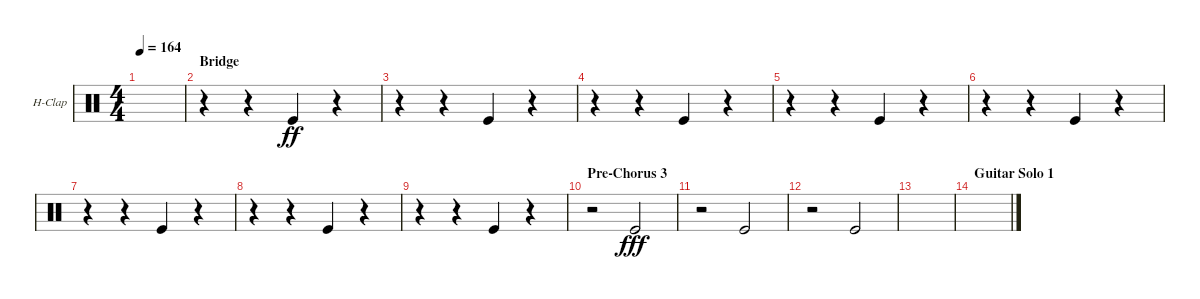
\defaultSystemsLayout 4
\bracketExtendMode groupsimilarinstruments
\firstSystemTrackNameOrientation horizontal
\otherSystemsTrackNameOrientation horizontal
\track ("Hand Clap" "H-Clap") {instrument percussion}
\staff {score}
\articulation defaults
\ts (4 4)
\tempo 164
\clef neutral
\ks c
|
\section ("" "Bridge")
r.4 r.4 "Kick (hit)".4{dy ff} r.4 |
r.4 r.4 "Kick (hit)".4 r.4 |
r.4 r.4 "Kick (hit)".4 r.4 |
r.4 r.4 "Kick (hit)".4 r.4 |
r.4 r.4 "Kick (hit)".4 r.4 |
r.4 r.4 "Kick (hit)".4 r.4 |
r.4 r.4 "Kick (hit)".4 r.4 |
r.4 r.4 "Kick (hit)".4 r.4 |
\section ("" "Pre-Chorus 3")
r.2 "Kick (hit)".2{dy fff} |
r.2 "Kick (hit)".2 |
r.2 "Kick (hit)".2 |
|
\section ("" "Guitar Solo 1")
